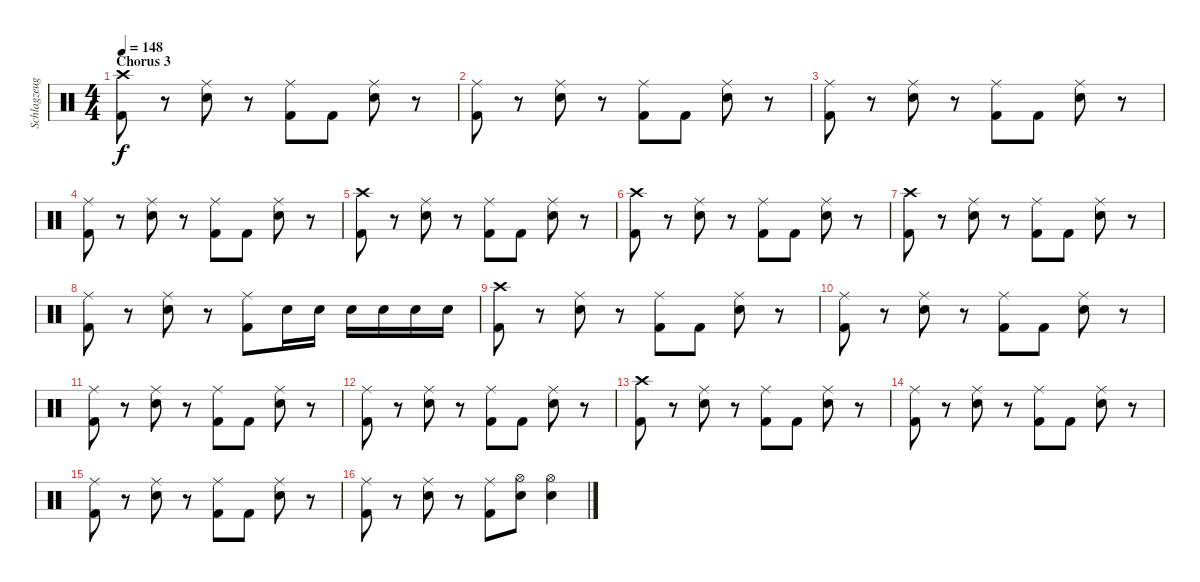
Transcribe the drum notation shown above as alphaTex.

\track ("Schlagzeug" "Schlagzeug") {instrument percussion}
\staff {score}
\articulation defaults
\ts (4 4)
\section ("" "Chorus 3")
\tempo 148
\clef neutral
\ks c
("Crash high (hit)" "Kick (hit) 2").8{dy f} r.8 ("Ride (middle)" "Electric Snare (hit)").8 r.8 ("Ride (middle)" "Kick (hit) 2").8 "Kick (hit) 2".8 ("Ride (middle)" "Electric Snare (hit)").8 r.8 |
("Ride (middle)" "Kick (hit) 2").8 r.8 ("Ride (middle)" "Electric Snare (hit)").8 r.8 ("Ride (middle)" "Kick (hit) 2").8 "Kick (hit) 2".8 ("Ride (middle)" "Electric Snare (hit)").8 r.8 |
("Ride (middle)" "Kick (hit) 2").8 r.8 ("Ride (middle)" "Electric Snare (hit)").8 r.8 ("Ride (middle)" "Kick (hit) 2").8 "Kick (hit) 2".8 ("Ride (middle)" "Electric Snare (hit)").8 r.8 |
("Ride (middle)" "Kick (hit) 2").8 r.8 ("Ride (middle)" "Electric Snare (hit)").8 r.8 ("Ride (middle)" "Kick (hit) 2").8 "Kick (hit) 2".8 ("Ride (middle)" "Electric Snare (hit)").8 r.8 |
("Crash high (hit)" "Kick (hit) 2").8 r.8 ("Ride (middle)" "Electric Snare (hit)").8 r.8 ("Ride (middle)" "Kick (hit) 2").8 "Kick (hit) 2".8 ("Ride (middle)" "Electric Snare (hit)").8 r.8 |
("Crash high (hit)" "Kick (hit) 2").8 r.8 ("Ride (middle)" "Electric Snare (hit)").8 r.8 ("Ride (middle)" "Kick (hit) 2").8 "Kick (hit) 2".8 ("Ride (middle)" "Electric Snare (hit)").8 r.8 |
("Crash high (hit)" "Kick (hit) 2").8 r.8 ("Ride (middle)" "Electric Snare (hit)").8 r.8 ("Ride (middle)" "Kick (hit) 2").8 "Kick (hit) 2".8 ("Ride (middle)" "Electric Snare (hit)").8 r.8 |
("Ride (middle)" "Kick (hit) 2").8 r.8 ("Ride (middle)" "Electric Snare (hit)").8 r.8 ("Ride (middle)" "Kick (hit) 2").8 "Electric Snare (hit)".16 "Electric Snare (hit)".16 "Electric Snare (hit)".16 "Electric Snare (hit)".16 "Electric Snare (hit)".16 "Electric Snare (hit)".16 |
("Crash high (hit)" "Kick (hit) 2").8 r.8 ("Ride (middle)" "Electric Snare (hit)").8 r.8 ("Ride (middle)" "Kick (hit) 2").8 "Kick (hit) 2".8 ("Ride (middle)" "Electric Snare (hit)").8 r.8 |
("Ride (middle)" "Kick (hit) 2").8 r.8 ("Ride (middle)" "Electric Snare (hit)").8 r.8 ("Ride (middle)" "Kick (hit) 2").8 "Kick (hit) 2".8 ("Ride (middle)" "Electric Snare (hit)").8 r.8 |
("Ride (middle)" "Kick (hit) 2").8 r.8 ("Ride (middle)" "Electric Snare (hit)").8 r.8 ("Ride (middle)" "Kick (hit) 2").8 "Kick (hit) 2".8 ("Ride (middle)" "Electric Snare (hit)").8 r.8 |
("Ride (middle)" "Kick (hit) 2").8 r.8 ("Ride (middle)" "Electric Snare (hit)").8 r.8 ("Ride (middle)" "Kick (hit) 2").8 "Kick (hit) 2".8 ("Ride (middle)" "Electric Snare (hit)").8 r.8 |
("Crash high (hit)" "Kick (hit) 2").8 r.8 ("Ride (middle)" "Electric Snare (hit)").8 r.8 ("Ride (middle)" "Kick (hit) 2").8 "Kick (hit) 2".8 ("Ride (middle)" "Electric Snare (hit)").8 r.8 |
("Ride (middle)" "Kick (hit) 2").8 r.8 ("Ride (middle)" "Electric Snare (hit)").8 r.8 ("Ride (middle)" "Kick (hit) 2").8 "Kick (hit) 2".8 ("Ride (middle)" "Electric Snare (hit)").8 r.8 |
("Ride (middle)" "Kick (hit) 2").8 r.8 ("Ride (middle)" "Electric Snare (hit)").8 r.8 ("Ride (middle)" "Kick (hit) 2").8 "Kick (hit) 2".8 ("Ride (middle)" "Electric Snare (hit)").8 r.8 |
("Ride (middle)" "Kick (hit) 2").8 r.8 ("Ride (middle)" "Electric Snare (hit)").8 r.8 ("Ride (middle)" "Kick (hit) 2").8 ("Hi-Hat (open)" "Electric Snare (hit)").8 ("Hi-Hat (open)" "Electric Snare (hit)").4
